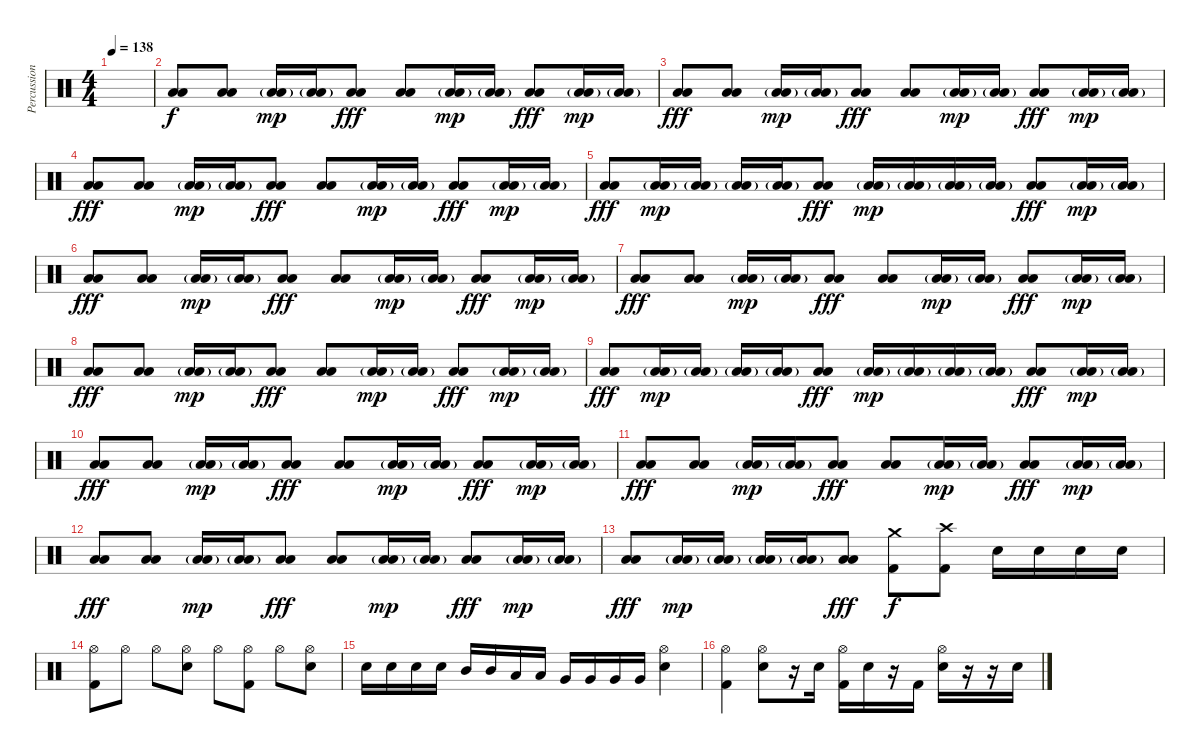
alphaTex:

\track ("Percussion" "Percussion") {instrument percussion}
\staff {score}
\articulation defaults
\ts (4 4)
\tempo 138
\clef neutral
\ks c
|
("Low Floor Tom (hit)" "Low Floor Tom (hit)").8 ("Low Floor Tom (hit)" "Low Floor Tom (hit)").8 ("Low Floor Tom (hit)"{g} "Low Floor Tom (hit)").16{dy mp} ("Low Floor Tom (hit)"{g} "Low Floor Tom (hit)").16 ("Low Floor Tom (hit)" "Low Floor Tom (hit)").8{dy fff} ("Low Floor Tom (hit)" "Low Floor Tom (hit)").8 ("Low Floor Tom (hit)"{g} "Low Floor Tom (hit)").16{dy mp} ("Low Floor Tom (hit)"{g} "Low Floor Tom (hit)").16 ("Low Floor Tom (hit)" "Low Floor Tom (hit)").8{dy fff} ("Low Floor Tom (hit)"{g} "Low Floor Tom (hit)").16{dy mp} ("Low Floor Tom (hit)"{g} "Low Floor Tom (hit)").16 |
("Low Floor Tom (hit)" "Low Floor Tom (hit)").8{dy fff} ("Low Floor Tom (hit)" "Low Floor Tom (hit)").8 ("Low Floor Tom (hit)"{g} "Low Floor Tom (hit)").16{dy mp} ("Low Floor Tom (hit)"{g} "Low Floor Tom (hit)").16 ("Low Floor Tom (hit)" "Low Floor Tom (hit)").8{dy fff} ("Low Floor Tom (hit)" "Low Floor Tom (hit)").8 ("Low Floor Tom (hit)"{g} "Low Floor Tom (hit)").16{dy mp} ("Low Floor Tom (hit)"{g} "Low Floor Tom (hit)").16 ("Low Floor Tom (hit)" "Low Floor Tom (hit)").8{dy fff} ("Low Floor Tom (hit)"{g} "Low Floor Tom (hit)").16{dy mp} ("Low Floor Tom (hit)"{g} "Low Floor Tom (hit)").16 |
("Low Floor Tom (hit)" "Low Floor Tom (hit)").8{dy fff} ("Low Floor Tom (hit)" "Low Floor Tom (hit)").8 ("Low Floor Tom (hit)"{g} "Low Floor Tom (hit)").16{dy mp} ("Low Floor Tom (hit)"{g} "Low Floor Tom (hit)").16 ("Low Floor Tom (hit)" "Low Floor Tom (hit)").8{dy fff} ("Low Floor Tom (hit)" "Low Floor Tom (hit)").8 ("Low Floor Tom (hit)"{g} "Low Floor Tom (hit)").16{dy mp} ("Low Floor Tom (hit)"{g} "Low Floor Tom (hit)").16 ("Low Floor Tom (hit)" "Low Floor Tom (hit)").8{dy fff} ("Low Floor Tom (hit)"{g} "Low Floor Tom (hit)").16{dy mp} ("Low Floor Tom (hit)"{g} "Low Floor Tom (hit)").16 |
("Low Floor Tom (hit)" "Low Floor Tom (hit)").8{dy fff} ("Low Floor Tom (hit)"{g} "Low Floor Tom (hit)").16{dy mp} ("Low Floor Tom (hit)"{g} "Low Floor Tom (hit)").16 ("Low Floor Tom (hit)"{g} "Low Floor Tom (hit)").16 ("Low Floor Tom (hit)"{g} "Low Floor Tom (hit)").16 ("Low Floor Tom (hit)" "Low Floor Tom (hit)").8{dy fff} ("Low Floor Tom (hit)"{g} "Low Floor Tom (hit)").16{dy mp} ("Low Floor Tom (hit)"{g} "Low Floor Tom (hit)").16 ("Low Floor Tom (hit)"{g} "Low Floor Tom (hit)").16 ("Low Floor Tom (hit)"{g} "Low Floor Tom (hit)").16 ("Low Floor Tom (hit)" "Low Floor Tom (hit)").8{dy fff} ("Low Floor Tom (hit)"{g} "Low Floor Tom (hit)").16{dy mp} ("Low Floor Tom (hit)"{g} "Low Floor Tom (hit)").16 |
("Low Floor Tom (hit)" "Low Floor Tom (hit)").8{dy fff} ("Low Floor Tom (hit)" "Low Floor Tom (hit)").8 ("Low Floor Tom (hit)"{g} "Low Floor Tom (hit)").16{dy mp} ("Low Floor Tom (hit)"{g} "Low Floor Tom (hit)").16 ("Low Floor Tom (hit)" "Low Floor Tom (hit)").8{dy fff} ("Low Floor Tom (hit)" "Low Floor Tom (hit)").8 ("Low Floor Tom (hit)"{g} "Low Floor Tom (hit)").16{dy mp} ("Low Floor Tom (hit)"{g} "Low Floor Tom (hit)").16 ("Low Floor Tom (hit)" "Low Floor Tom (hit)").8{dy fff} ("Low Floor Tom (hit)"{g} "Low Floor Tom (hit)").16{dy mp} ("Low Floor Tom (hit)"{g} "Low Floor Tom (hit)").16 |
("Low Floor Tom (hit)" "Low Floor Tom (hit)").8{dy fff} ("Low Floor Tom (hit)" "Low Floor Tom (hit)").8 ("Low Floor Tom (hit)"{g} "Low Floor Tom (hit)").16{dy mp} ("Low Floor Tom (hit)"{g} "Low Floor Tom (hit)").16 ("Low Floor Tom (hit)" "Low Floor Tom (hit)").8{dy fff} ("Low Floor Tom (hit)" "Low Floor Tom (hit)").8 ("Low Floor Tom (hit)"{g} "Low Floor Tom (hit)").16{dy mp} ("Low Floor Tom (hit)"{g} "Low Floor Tom (hit)").16 ("Low Floor Tom (hit)" "Low Floor Tom (hit)").8{dy fff} ("Low Floor Tom (hit)"{g} "Low Floor Tom (hit)").16{dy mp} ("Low Floor Tom (hit)"{g} "Low Floor Tom (hit)").16 |
("Low Floor Tom (hit)" "Low Floor Tom (hit)").8{dy fff} ("Low Floor Tom (hit)" "Low Floor Tom (hit)").8 ("Low Floor Tom (hit)"{g} "Low Floor Tom (hit)").16{dy mp} ("Low Floor Tom (hit)"{g} "Low Floor Tom (hit)").16 ("Low Floor Tom (hit)" "Low Floor Tom (hit)").8{dy fff} ("Low Floor Tom (hit)" "Low Floor Tom (hit)").8 ("Low Floor Tom (hit)"{g} "Low Floor Tom (hit)").16{dy mp} ("Low Floor Tom (hit)"{g} "Low Floor Tom (hit)").16 ("Low Floor Tom (hit)" "Low Floor Tom (hit)").8{dy fff} ("Low Floor Tom (hit)"{g} "Low Floor Tom (hit)").16{dy mp} ("Low Floor Tom (hit)"{g} "Low Floor Tom (hit)").16 |
("Low Floor Tom (hit)" "Low Floor Tom (hit)").8{dy fff} ("Low Floor Tom (hit)"{g} "Low Floor Tom (hit)").16{dy mp} ("Low Floor Tom (hit)"{g} "Low Floor Tom (hit)").16 ("Low Floor Tom (hit)"{g} "Low Floor Tom (hit)").16 ("Low Floor Tom (hit)"{g} "Low Floor Tom (hit)").16 ("Low Floor Tom (hit)" "Low Floor Tom (hit)").8{dy fff} ("Low Floor Tom (hit)"{g} "Low Floor Tom (hit)").16{dy mp} ("Low Floor Tom (hit)"{g} "Low Floor Tom (hit)").16 ("Low Floor Tom (hit)"{g} "Low Floor Tom (hit)").16 ("Low Floor Tom (hit)"{g} "Low Floor Tom (hit)").16 ("Low Floor Tom (hit)" "Low Floor Tom (hit)").8{dy fff} ("Low Floor Tom (hit)"{g} "Low Floor Tom (hit)").16{dy mp} ("Low Floor Tom (hit)"{g} "Low Floor Tom (hit)").16 |
("Low Floor Tom (hit)" "Low Floor Tom (hit)").8{dy fff} ("Low Floor Tom (hit)" "Low Floor Tom (hit)").8 ("Low Floor Tom (hit)"{g} "Low Floor Tom (hit)").16{dy mp} ("Low Floor Tom (hit)"{g} "Low Floor Tom (hit)").16 ("Low Floor Tom (hit)" "Low Floor Tom (hit)").8{dy fff} ("Low Floor Tom (hit)" "Low Floor Tom (hit)").8 ("Low Floor Tom (hit)"{g} "Low Floor Tom (hit)").16{dy mp} ("Low Floor Tom (hit)"{g} "Low Floor Tom (hit)").16 ("Low Floor Tom (hit)" "Low Floor Tom (hit)").8{dy fff} ("Low Floor Tom (hit)"{g} "Low Floor Tom (hit)").16{dy mp} ("Low Floor Tom (hit)"{g} "Low Floor Tom (hit)").16 |
("Low Floor Tom (hit)" "Low Floor Tom (hit)").8{dy fff} ("Low Floor Tom (hit)" "Low Floor Tom (hit)").8 ("Low Floor Tom (hit)"{g} "Low Floor Tom (hit)").16{dy mp} ("Low Floor Tom (hit)"{g} "Low Floor Tom (hit)").16 ("Low Floor Tom (hit)" "Low Floor Tom (hit)").8{dy fff} ("Low Floor Tom (hit)" "Low Floor Tom (hit)").8 ("Low Floor Tom (hit)"{g} "Low Floor Tom (hit)").16{dy mp} ("Low Floor Tom (hit)"{g} "Low Floor Tom (hit)").16 ("Low Floor Tom (hit)" "Low Floor Tom (hit)").8{dy fff} ("Low Floor Tom (hit)"{g} "Low Floor Tom (hit)").16{dy mp} ("Low Floor Tom (hit)"{g} "Low Floor Tom (hit)").16 |
("Low Floor Tom (hit)" "Low Floor Tom (hit)").8{dy fff} ("Low Floor Tom (hit)" "Low Floor Tom (hit)").8 ("Low Floor Tom (hit)"{g} "Low Floor Tom (hit)").16{dy mp} ("Low Floor Tom (hit)"{g} "Low Floor Tom (hit)").16 ("Low Floor Tom (hit)" "Low Floor Tom (hit)").8{dy fff} ("Low Floor Tom (hit)" "Low Floor Tom (hit)").8 ("Low Floor Tom (hit)"{g} "Low Floor Tom (hit)").16{dy mp} ("Low Floor Tom (hit)"{g} "Low Floor Tom (hit)").16 ("Low Floor Tom (hit)" "Low Floor Tom (hit)").8{dy fff} ("Low Floor Tom (hit)"{g} "Low Floor Tom (hit)").16{dy mp} ("Low Floor Tom (hit)"{g} "Low Floor Tom (hit)").16 |
("Low Floor Tom (hit)" "Low Floor Tom (hit)").8{dy fff} ("Low Floor Tom (hit)"{g} "Low Floor Tom (hit)").16{dy mp} ("Low Floor Tom (hit)"{g} "Low Floor Tom (hit)").16 ("Low Floor Tom (hit)"{g} "Low Floor Tom (hit)").16 ("Low Floor Tom (hit)"{g} "Low Floor Tom (hit)").16 ("Low Floor Tom (hit)" "Low Floor Tom (hit)").8{dy fff} ("Crash medium (hit)" "Kick (hit) 2").8{dy f} ("Crash high (hit)" "Kick (hit) 2").8 "Snare (hit) 2".16 "Snare (hit) 2".16 "Snare (hit) 2".16 "Snare (hit) 2".16 |
("Hi-Hat (open)" "Kick (hit) 2").8 "Hi-Hat (open)".8 "Hi-Hat (open)".8 ("Hi-Hat (open)" "Snare (hit) 2").8 "Hi-Hat (open)".8 ("Hi-Hat (open)" "Kick (hit) 2").8 "Hi-Hat (open)".8 ("Hi-Hat (open)" "Snare (hit) 2").8 |
"Snare (hit) 2".16 "Snare (hit) 2".16 "Snare (hit) 2".16 "Snare (hit) 2".16 "Mid Tom (hit)".16 "Mid Tom (hit)".16 "Low Tom (hit)".16 "Low Tom (hit)".16 "Very Low Tom (hit)".16 "Very Low Tom (hit)".16 "Very Low Tom (hit)".16 "Very Low Tom (hit)".16 ("Hi-Hat (open)" "Snare (hit) 2").4 |
("Hi-Hat (open)" "Kick (hit) 2").4 ("Hi-Hat (open)" "Snare (hit) 2").8 r.16 "Snare (hit) 2".16 ("Hi-Hat (open)" "Kick (hit) 2").16 "Snare (hit) 2".16 r.16 "Kick (hit) 2".16 ("Hi-Hat (open)" "Snare (hit) 2").16 r.16 r.16 "Snare (hit) 2".16
